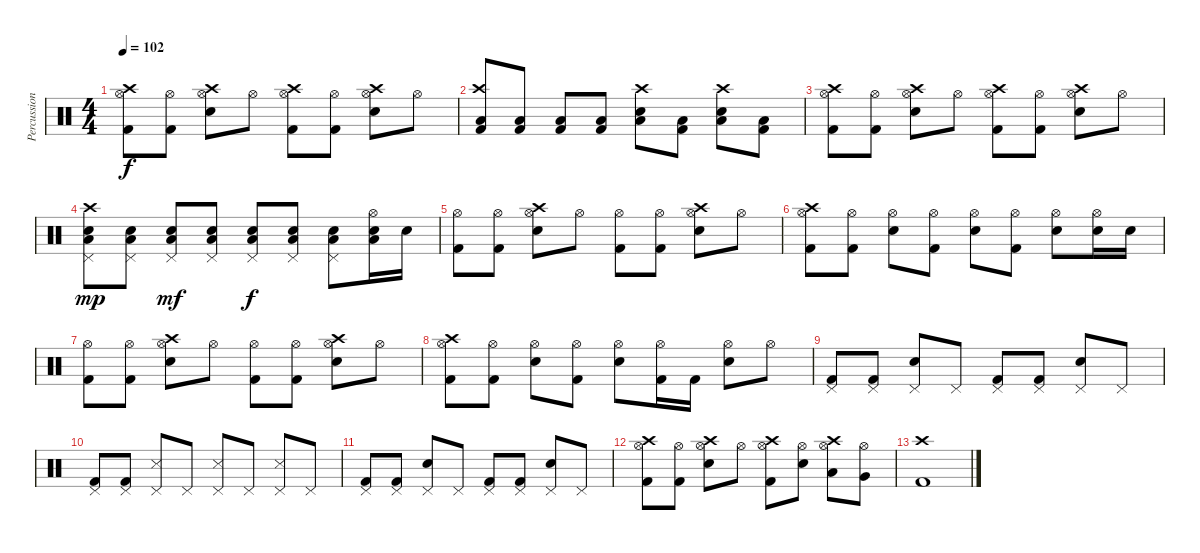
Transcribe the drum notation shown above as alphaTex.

\track ("Percussion" "Percussion") {instrument percussion}
\staff {score}
\articulation defaults
\ts (4 4)
\tempo 102
\clef neutral
\ks c
("Kick (hit) 2" "Hi-Hat (open)" "Crash high (hit)").8{dy f} ("Kick (hit) 2" "Hi-Hat (open)").8 ("Snare (hit) 2" "Hi-Hat (open)" "Crash high (hit)").8 "Hi-Hat (open)".8 ("Kick (hit) 2" "Hi-Hat (open)" "Crash high (hit)").8 ("Kick (hit) 2" "Hi-Hat (open)").8 ("Snare (hit) 2" "Hi-Hat (open)" "Crash high (hit)").8 "Hi-Hat (open)".8 |
("Kick (hit) 2" "Low Tom (hit)" "Crash high (hit)").8 ("Kick (hit) 2" "Low Tom (hit)").8 ("Kick (hit) 2" "Low Tom (hit)").8 ("Kick (hit) 2" "Low Tom (hit)").8 ("Snare (hit) 2" "Low Tom (hit)" "Crash high (hit)").8 ("Kick (hit) 2" "Low Tom (hit)").8 ("Snare (hit) 2" "Low Tom (hit)" "Crash high (hit)").8 ("Kick (hit) 2" "Low Tom (hit)").8 |
("Kick (hit) 2" "Hi-Hat (open)" "Crash high (hit)").8 ("Kick (hit) 2" "Hi-Hat (open)").8 ("Snare (hit) 2" "Hi-Hat (open)" "Crash high (hit)").8 "Hi-Hat (open)".8 ("Kick (hit) 2" "Hi-Hat (open)" "Crash high (hit)").8 ("Kick (hit) 2" "Hi-Hat (open)").8 ("Snare (hit) 2" "Hi-Hat (open)" "Crash high (hit)").8 "Hi-Hat (open)".8 |
("Snare (hit) 2" "Low Tom (hit)" "Crash high (hit)" "Pedal Hi-Hat (hit)").8{dy mp} ("Snare (hit) 2" "Low Tom (hit)" "Pedal Hi-Hat (hit)").8 ("Snare (hit) 2" "Low Tom (hit)" "Pedal Hi-Hat (hit)").8{dy mf} ("Snare (hit) 2" "Low Tom (hit)" "Pedal Hi-Hat (hit)").8 ("Snare (hit) 2" "Low Tom (hit)" "Pedal Hi-Hat (hit)").8{dy f} ("Snare (hit) 2" "Low Tom (hit)" "Pedal Hi-Hat (hit)").8 ("Snare (hit) 2" "Low Tom (hit)" "Pedal Hi-Hat (hit)").8 ("Snare (hit) 2" "Low Tom (hit)" "Hi-Hat (open)").16 "Snare (hit) 2".16 |
("Kick (hit) 2" "Hi-Hat (open)").8 ("Kick (hit) 2" "Hi-Hat (open)").8 ("Snare (hit) 2" "Hi-Hat (open)" "Crash high (hit)").8 "Hi-Hat (open)".8 ("Kick (hit) 2" "Hi-Hat (open)").8 ("Kick (hit) 2" "Hi-Hat (open)").8 ("Snare (hit) 2" "Hi-Hat (open)" "Crash high (hit)").8 "Hi-Hat (open)".8 |
("Kick (hit) 2" "Hi-Hat (open)" "Crash high (hit)").8 ("Kick (hit) 2" "Hi-Hat (open)").8 ("Snare (hit) 2" "Hi-Hat (open)").8 ("Kick (hit) 2" "Hi-Hat (open)").8 ("Snare (hit) 2" "Hi-Hat (open)").8 ("Kick (hit) 2" "Hi-Hat (open)").8 ("Snare (hit) 2" "Hi-Hat (open)").8 ("Snare (hit) 2" "Hi-Hat (open)").16 "Snare (hit) 2".16 |
("Kick (hit) 2" "Hi-Hat (open)").8 ("Kick (hit) 2" "Hi-Hat (open)").8 ("Snare (hit) 2" "Hi-Hat (open)" "Crash high (hit)").8 "Hi-Hat (open)".8 ("Kick (hit) 2" "Hi-Hat (open)").8 ("Kick (hit) 2" "Hi-Hat (open)").8 ("Snare (hit) 2" "Hi-Hat (open)" "Crash high (hit)").8 "Hi-Hat (open)".8 |
("Kick (hit) 2" "Hi-Hat (open)" "Crash high (hit)").8 ("Kick (hit) 2" "Hi-Hat (open)").8 ("Snare (hit) 2" "Hi-Hat (open)").8 ("Kick (hit) 2" "Hi-Hat (open)").8 ("Snare (hit) 2" "Hi-Hat (open)").8 ("Kick (hit) 2" "Hi-Hat (open)").16 "Kick (hit) 2".16 ("Snare (hit) 2" "Hi-Hat (open)").8 "Hi-Hat (open)".8 |
("Kick (hit) 2" "Pedal Hi-Hat (hit)").8 ("Kick (hit) 2" "Pedal Hi-Hat (hit)").8 ("Snare (hit) 2" "Pedal Hi-Hat (hit)").8 "Pedal Hi-Hat (hit)".8 ("Kick (hit) 2" "Pedal Hi-Hat (hit)").8 ("Kick (hit) 2" "Pedal Hi-Hat (hit)").8 ("Snare (hit) 2" "Pedal Hi-Hat (hit)").8 "Pedal Hi-Hat (hit)".8 |
("Kick (hit) 2" "Pedal Hi-Hat (hit)").8 ("Kick (hit) 2" "Pedal Hi-Hat (hit)").8 ("Metronome (hit)" "Pedal Hi-Hat (hit)").8 "Pedal Hi-Hat (hit)".8 ("Metronome (hit)" "Pedal Hi-Hat (hit)").8 "Pedal Hi-Hat (hit)".8 ("Metronome (hit)" "Pedal Hi-Hat (hit)").8 "Pedal Hi-Hat (hit)".8 |
("Kick (hit) 2" "Pedal Hi-Hat (hit)").8 ("Kick (hit) 2" "Pedal Hi-Hat (hit)").8 ("Snare (hit) 2" "Pedal Hi-Hat (hit)").8 "Pedal Hi-Hat (hit)".8 ("Kick (hit) 2" "Pedal Hi-Hat (hit)").8 ("Kick (hit) 2" "Pedal Hi-Hat (hit)").8 ("Snare (hit) 2" "Pedal Hi-Hat (hit)").8 "Pedal Hi-Hat (hit)".8 |
("Kick (hit) 2" "Hi-Hat (open)" "Crash high (hit)").8 ("Kick (hit) 2" "Hi-Hat (open)").8 ("Snare (hit) 2" "Hi-Hat (open)" "Crash high (hit)").8 "Hi-Hat (open)".8 ("Kick (hit) 2" "Hi-Hat (open)" "Crash high (hit)").8 ("Snare (hit) 2" "Hi-Hat (open)").8 ("Low Tom (hit)" "Hi-Hat (open)" "Crash high (hit)").8 ("Very Low Tom (hit)" "Hi-Hat (open)").8 |
("Kick (hit) 2" "Crash high (hit)").1
